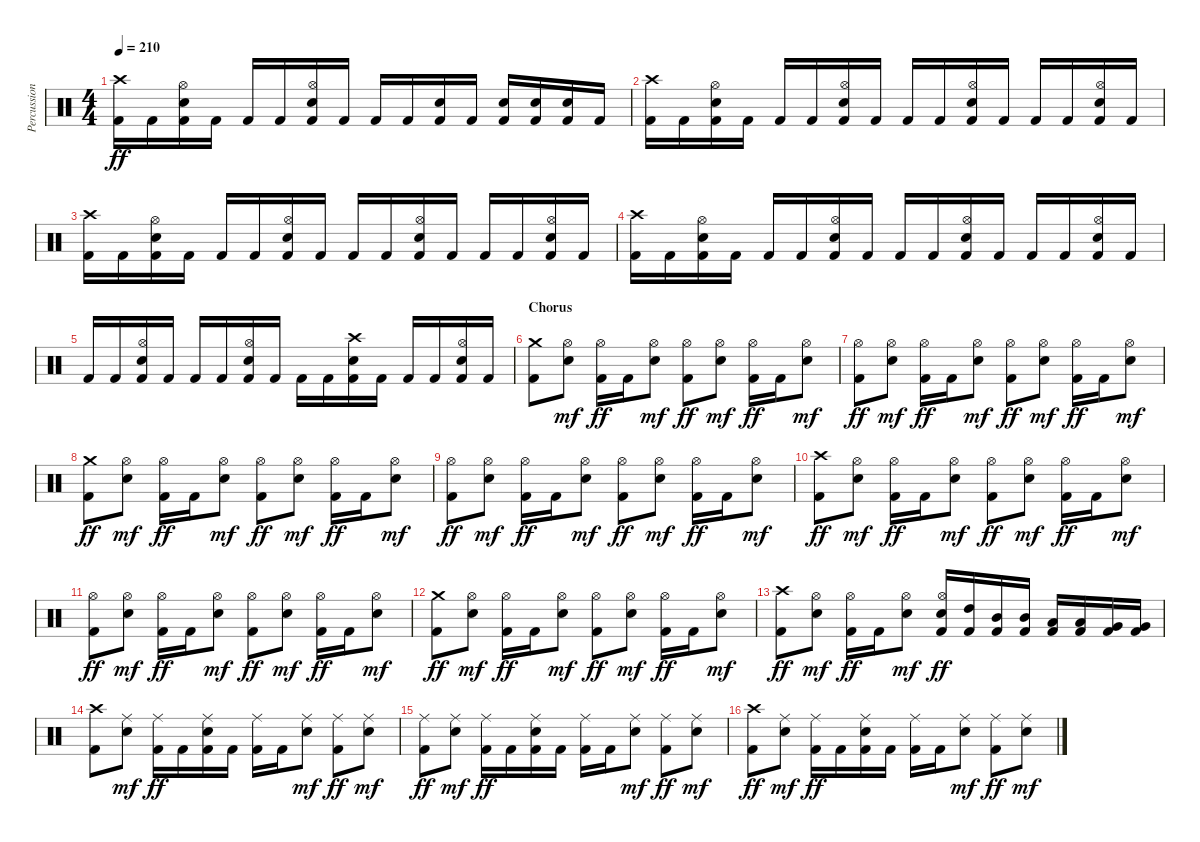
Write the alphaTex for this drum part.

\track ("Percussion" "Percussion") {instrument percussion}
\staff {score}
\articulation defaults
\ts (4 4)
\tempo 210
\clef neutral
\ks c
("Crash high (hit)" "Kick (hit) 2").16{dy ff} "Kick (hit) 2".16 ("Hi-Hat (open)" "Snare (hit) 2" "Kick (hit) 2").16 "Kick (hit) 2".16 "Kick (hit) 2".16 "Kick (hit) 2".16 ("Hi-Hat (open)" "Snare (hit) 2" "Kick (hit) 2").16 "Kick (hit) 2".16 "Kick (hit) 2".16 "Kick (hit) 2".16 ("Snare (hit) 2" "Kick (hit) 2").16 "Kick (hit) 2".16 ("Snare (hit) 2" "Kick (hit) 2").16 ("Snare (hit) 2" "Kick (hit) 2").16 ("Snare (hit) 2" "Kick (hit) 2").16 "Kick (hit) 2".16 |
("Crash high (hit)" "Kick (hit) 2").16 "Kick (hit) 2".16 ("Hi-Hat (open)" "Snare (hit) 2" "Kick (hit) 2").16 "Kick (hit) 2".16 "Kick (hit) 2".16 "Kick (hit) 2".16 ("Hi-Hat (open)" "Snare (hit) 2" "Kick (hit) 2").16 "Kick (hit) 2".16 "Kick (hit) 2".16 "Kick (hit) 2".16 ("Hi-Hat (open)" "Snare (hit) 2" "Kick (hit) 2").16 "Kick (hit) 2".16 "Kick (hit) 2".16 "Kick (hit) 2".16 ("Hi-Hat (open)" "Snare (hit) 2" "Kick (hit) 2").16 "Kick (hit) 2".16 |
("Crash high (hit)" "Kick (hit) 2").16 "Kick (hit) 2".16 ("Hi-Hat (open)" "Snare (hit) 2" "Kick (hit) 2").16 "Kick (hit) 2".16 "Kick (hit) 2".16 "Kick (hit) 2".16 ("Hi-Hat (open)" "Snare (hit) 2" "Kick (hit) 2").16 "Kick (hit) 2".16 "Kick (hit) 2".16 "Kick (hit) 2".16 ("Hi-Hat (open)" "Snare (hit) 2" "Kick (hit) 2").16 "Kick (hit) 2".16 "Kick (hit) 2".16 "Kick (hit) 2".16 ("Hi-Hat (open)" "Snare (hit) 2" "Kick (hit) 2").16 "Kick (hit) 2".16 |
("Crash high (hit)" "Kick (hit) 2").16 "Kick (hit) 2".16 ("Hi-Hat (open)" "Snare (hit) 2" "Kick (hit) 2").16 "Kick (hit) 2".16 "Kick (hit) 2".16 "Kick (hit) 2".16 ("Hi-Hat (open)" "Snare (hit) 2" "Kick (hit) 2").16 "Kick (hit) 2".16 "Kick (hit) 2".16 "Kick (hit) 2".16 ("Hi-Hat (open)" "Snare (hit) 2" "Kick (hit) 2").16 "Kick (hit) 2".16 "Kick (hit) 2".16 "Kick (hit) 2".16 ("Hi-Hat (open)" "Snare (hit) 2" "Kick (hit) 2").16 "Kick (hit) 2".16 |
"Kick (hit) 2".16 "Kick (hit) 2".16 ("Hi-Hat (open)" "Snare (hit) 2" "Kick (hit) 2").16 "Kick (hit) 2".16 "Kick (hit) 2".16 "Kick (hit) 2".16 ("Hi-Hat (open)" "Snare (hit) 2" "Kick (hit) 2").16 "Kick (hit) 2".16 "Kick (hit) 2".16 "Kick (hit) 2".16 ("Crash high (hit)" "Snare (hit) 2" "Kick (hit) 2").16 "Kick (hit) 2".16 "Kick (hit) 2".16 "Kick (hit) 2".16 ("Hi-Hat (open)" "Snare (hit) 2" "Kick (hit) 2").16 "Kick (hit) 2".16 |
\section ("" "Chorus")
("Crash medium (hit)" "Kick (hit) 2").8 ("Hi-Hat (open)" "Snare (hit) 2").8{dy mf} ("Hi-Hat (open)" "Kick (hit) 2").16{dy ff} "Kick (hit) 2".16 ("Hi-Hat (open)" "Snare (hit) 2").8{dy mf} ("Hi-Hat (open)" "Kick (hit) 2").8{dy ff} ("Hi-Hat (open)" "Snare (hit) 2").8{dy mf} ("Hi-Hat (open)" "Kick (hit) 2").16{dy ff} "Kick (hit) 2".16 ("Hi-Hat (open)" "Snare (hit) 2").8{dy mf} |
("Hi-Hat (open)" "Kick (hit) 2").8{dy ff} ("Hi-Hat (open)" "Snare (hit) 2").8{dy mf} ("Hi-Hat (open)" "Kick (hit) 2").16{dy ff} "Kick (hit) 2".16 ("Hi-Hat (open)" "Snare (hit) 2").8{dy mf} ("Hi-Hat (open)" "Kick (hit) 2").8{dy ff} ("Hi-Hat (open)" "Snare (hit) 2").8{dy mf} ("Hi-Hat (open)" "Kick (hit) 2").16{dy ff} "Kick (hit) 2".16 ("Hi-Hat (open)" "Snare (hit) 2").8{dy mf} |
("Crash medium (hit)" "Kick (hit) 2").8{dy ff} ("Hi-Hat (open)" "Snare (hit) 2").8{dy mf} ("Hi-Hat (open)" "Kick (hit) 2").16{dy ff} "Kick (hit) 2".16 ("Hi-Hat (open)" "Snare (hit) 2").8{dy mf} ("Hi-Hat (open)" "Kick (hit) 2").8{dy ff} ("Hi-Hat (open)" "Snare (hit) 2").8{dy mf} ("Hi-Hat (open)" "Kick (hit) 2").16{dy ff} "Kick (hit) 2".16 ("Hi-Hat (open)" "Snare (hit) 2").8{dy mf} |
("Hi-Hat (open)" "Kick (hit) 2").8{dy ff} ("Hi-Hat (open)" "Snare (hit) 2").8{dy mf} ("Hi-Hat (open)" "Kick (hit) 2").16{dy ff} "Kick (hit) 2".16 ("Hi-Hat (open)" "Snare (hit) 2").8{dy mf} ("Hi-Hat (open)" "Kick (hit) 2").8{dy ff} ("Hi-Hat (open)" "Snare (hit) 2").8{dy mf} ("Hi-Hat (open)" "Kick (hit) 2").16{dy ff} "Kick (hit) 2".16 ("Hi-Hat (open)" "Snare (hit) 2").8{dy mf} |
("Crash high (hit)" "Kick (hit) 2").8{dy ff} ("Hi-Hat (open)" "Snare (hit) 2").8{dy mf} ("Hi-Hat (open)" "Kick (hit) 2").16{dy ff} "Kick (hit) 2".16 ("Hi-Hat (open)" "Snare (hit) 2").8{dy mf} ("Hi-Hat (open)" "Kick (hit) 2").8{dy ff} ("Hi-Hat (open)" "Snare (hit) 2").8{dy mf} ("Hi-Hat (open)" "Kick (hit) 2").16{dy ff} "Kick (hit) 2".16 ("Hi-Hat (open)" "Snare (hit) 2").8{dy mf} |
("Hi-Hat (open)" "Kick (hit) 2").8{dy ff} ("Hi-Hat (open)" "Snare (hit) 2").8{dy mf} ("Hi-Hat (open)" "Kick (hit) 2").16{dy ff} "Kick (hit) 2".16 ("Hi-Hat (open)" "Snare (hit) 2").8{dy mf} ("Hi-Hat (open)" "Kick (hit) 2").8{dy ff} ("Hi-Hat (open)" "Snare (hit) 2").8{dy mf} ("Hi-Hat (open)" "Kick (hit) 2").16{dy ff} "Kick (hit) 2".16 ("Hi-Hat (open)" "Snare (hit) 2").8{dy mf} |
("Crash medium (hit)" "Kick (hit) 2").8{dy ff} ("Hi-Hat (open)" "Snare (hit) 2").8{dy mf} ("Hi-Hat (open)" "Kick (hit) 2").16{dy ff} "Kick (hit) 2".16 ("Hi-Hat (open)" "Snare (hit) 2").8{dy mf} ("Hi-Hat (open)" "Kick (hit) 2").8{dy ff} ("Hi-Hat (open)" "Snare (hit) 2").8{dy mf} ("Hi-Hat (open)" "Kick (hit) 2").16{dy ff} "Kick (hit) 2".16 ("Hi-Hat (open)" "Snare (hit) 2").8{dy mf} |
("Crash high (hit)" "Kick (hit) 2").8{dy ff} ("Hi-Hat (open)" "Snare (hit) 2").8{dy mf} ("Hi-Hat (open)" "Kick (hit) 2").16{dy ff} "Kick (hit) 2".16 ("Hi-Hat (open)" "Snare (hit) 2").8{dy mf} ("Hi-Hat (open)" "Snare (hit) 2" "Kick (hit) 2").16{dy ff} ("High Tom (hit)" "Kick (hit) 2").16 ("Mid Tom (hit)" "Kick (hit) 2").16 ("Mid Tom (hit)" "Kick (hit) 2").16 ("Low Tom (hit)" "Kick (hit) 2").16 ("Low Tom (hit)" "Kick (hit) 2").16 ("Very Low Tom (hit)" "Kick (hit) 2").16 ("Very Low Tom (hit)" "Kick (hit) 2").16 |
("Crash high (hit)" "Kick (hit) 2").8 ("Ride (middle)" "Snare (hit) 2").8{dy mf} ("Ride (middle)" "Kick (hit) 2").16{dy ff} "Kick (hit) 2".16 ("Ride (middle)" "Snare (hit) 2" "Kick (hit) 2").16 "Kick (hit) 2".16 ("Ride (middle)" "Kick (hit) 2").16 "Kick (hit) 2".16 ("Ride (middle)" "Snare (hit) 2").8{dy mf} ("Ride (middle)" "Kick (hit) 2").8{dy ff} ("Ride (middle)" "Snare (hit) 2").8{dy mf} |
("Ride (middle)" "Kick (hit) 2").8{dy ff} ("Ride (middle)" "Snare (hit) 2").8{dy mf} ("Ride (middle)" "Kick (hit) 2").16{dy ff} "Kick (hit) 2".16 ("Ride (middle)" "Snare (hit) 2" "Kick (hit) 2").16 "Kick (hit) 2".16 ("Ride (middle)" "Kick (hit) 2").16 "Kick (hit) 2".16 ("Ride (middle)" "Snare (hit) 2").8{dy mf} ("Ride (middle)" "Kick (hit) 2").8{dy ff} ("Ride (middle)" "Snare (hit) 2").8{dy mf} |
("Crash high (hit)" "Kick (hit) 2").8{dy ff} ("Ride (middle)" "Snare (hit) 2").8{dy mf} ("Ride (middle)" "Kick (hit) 2").16{dy ff} "Kick (hit) 2".16 ("Ride (middle)" "Snare (hit) 2" "Kick (hit) 2").16 "Kick (hit) 2".16 ("Ride (middle)" "Kick (hit) 2").16 "Kick (hit) 2".16 ("Ride (middle)" "Snare (hit) 2").8{dy mf} ("Ride (middle)" "Kick (hit) 2").8{dy ff} ("Ride (middle)" "Snare (hit) 2").8{dy mf}
